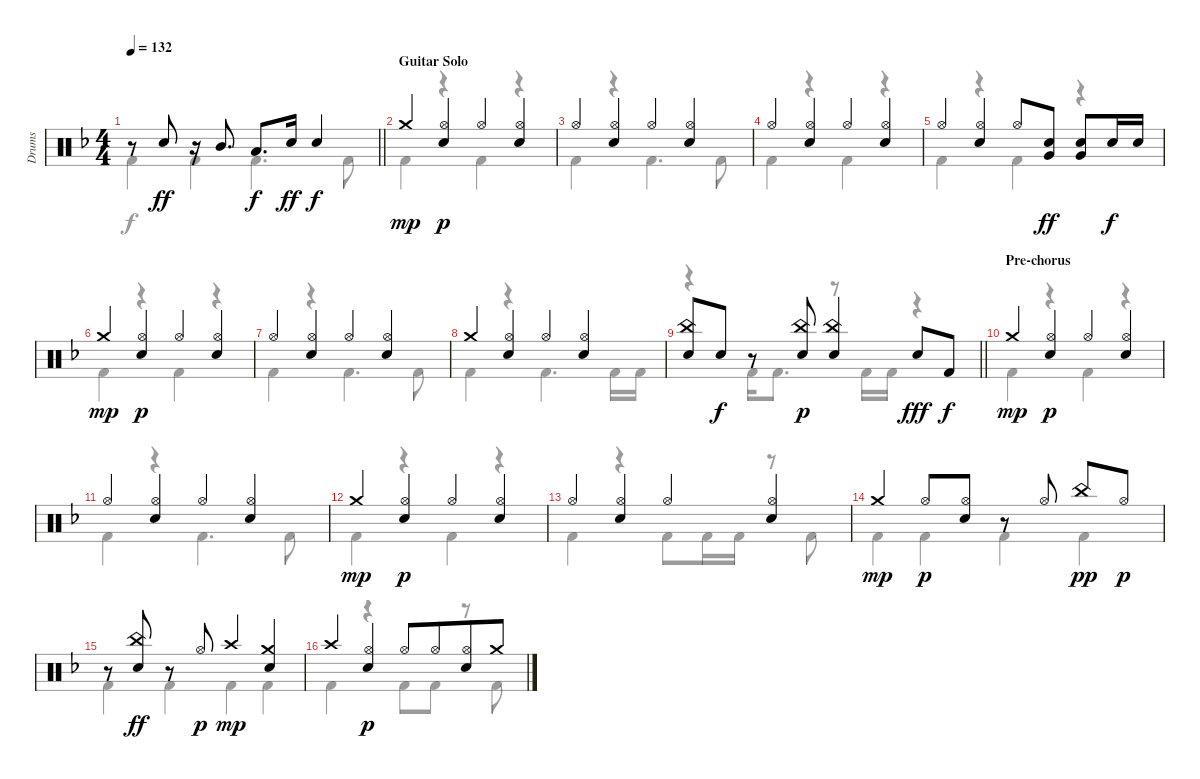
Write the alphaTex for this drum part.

\track ("Drums" "Drums") {instrument percussion}
\staff {score}
\articulation defaults
\voice
\ts (4 4)
\tempo 132
\clef neutral
\barLineRight lightlight
\ks f
r.8{dy mp} "Electric Snare (hit)".8{dy ff} r.16 "Mid Tom (hit)".8{d} "Low Tom (hit)".8{d dy f} "Electric Snare (hit)".16{dy ff} "Electric Snare (hit)".4{dy f} |
\section ("" "Guitar Solo")
"Crash medium (hit)".4{dy mp} ("Hi-Hat (open)" "Electric Snare (hit)").4{dy p} "Hi-Hat (open)".4 ("Hi-Hat (open)" "Electric Snare (hit)").4 |
"Hi-Hat (open)".4 ("Hi-Hat (open)" "Electric Snare (hit)").4 "Hi-Hat (open)".4 ("Hi-Hat (open)" "Electric Snare (hit)").4 |
"Hi-Hat (open)".4 ("Hi-Hat (open)" "Electric Snare (hit)").4 "Hi-Hat (open)".4 ("Hi-Hat (open)" "Electric Snare (hit)").4 |
"Hi-Hat (open)".4 ("Hi-Hat (open)" "Electric Snare (hit)").4 "Hi-Hat (open)".8 ("Electric Snare (hit)" "Very Low Tom (hit)").8{dy ff} ("Very Low Tom (hit)" "Electric Snare (hit)").8 "Electric Snare (hit)".16{dy f} "Electric Snare (hit)".16 |
"Crash medium (hit)".4{dy mp} ("Hi-Hat (open)" "Electric Snare (hit)").4{dy p} "Hi-Hat (open)".4 ("Hi-Hat (open)" "Electric Snare (hit)").4 |
"Hi-Hat (open)".4 ("Hi-Hat (open)" "Electric Snare (hit)").4 "Hi-Hat (open)".4 ("Hi-Hat (open)" "Electric Snare (hit)").4 |
"Crash medium (hit)".4 ("Hi-Hat (open)" "Electric Snare (hit)").4 "Hi-Hat (open)".4 ("Hi-Hat (open)" "Electric Snare (hit)").4 |
\barLineRight lightlight
("Electric Snare (hit)" "China (hit)").8 "Electric Snare (hit)".8{dy f} r.8 ("Electric Snare (hit)" "China (hit)").8{dy p} ("Electric Snare (hit)" "China (hit)").4 "Electric Snare (hit)".8{dy fff} "Kick (hit) 2".8{dy f} |
\section ("" "Pre-chorus")
"Crash medium (hit)".4{dy mp} ("Hi-Hat (open)" "Electric Snare (hit)").4{dy p} "Hi-Hat (open)".4 ("Hi-Hat (open)" "Electric Snare (hit)").4 |
"Hi-Hat (open)".4 ("Hi-Hat (open)" "Electric Snare (hit)").4 "Hi-Hat (open)".4 ("Hi-Hat (open)" "Electric Snare (hit)").4 |
"Crash medium (hit)".4{dy mp} ("Hi-Hat (open)" "Electric Snare (hit)").4{dy p} "Hi-Hat (open)".4 ("Hi-Hat (open)" "Electric Snare (hit)").4 |
"Hi-Hat (open)".4 ("Hi-Hat (open)" "Electric Snare (hit)").4 "Hi-Hat (open)".4 ("Hi-Hat (open)" "Electric Snare (hit)").4 |
"Crash medium (hit)".4{dy mp} "Hi-Hat (open)".8{dy p} ("Electric Snare (hit)" "Hi-Hat (open)").8 r.8 "Hi-Hat (open)".8 "China (hit)".8{dy pp} "Hi-Hat (open)".8{dy p} |
r.8 ("China (hit)" "Electric Snare (hit)").8{dy ff} r.8 "Hi-Hat (open)".8{dy p} "Crash high (hit)".4{dy mp} ("Electric Snare (hit)" "Crash medium (hit)").4 |
"Crash high (hit)".4 ("Electric Snare (hit)" "Hi-Hat (open)").4{dy p} "Hi-Hat (open)".8 "Hi-Hat (open)".8{beam merge} ("Hi-Hat (open)" "Electric Snare (hit)").8 "Crash medium (hit)".8
\voice
\clef neutral
\ottava regular
\simile none
\barLineRight lightlight
\ks f "Kick (hit) 2".4{dy f} "Kick (hit) 2".4 "Kick (hit) 2".4{d} "Kick (hit) 2".8
|
"Kick (hit) 2".4 r.4 "Kick (hit) 2".4 r.4 |
"Kick (hit) 2".4 r.4 "Kick (hit) 2".4{d} "Kick (hit) 2".8 |
"Kick (hit) 2".4 r.4 "Kick (hit) 2".4 r.4 |
"Kick (hit) 2".4 r.4 "Kick (hit) 2".4 r.4 |
"Kick (hit) 2".4 r.4 "Kick (hit) 2".4 r.4 |
"Kick (hit) 2".4 r.4 "Kick (hit) 2".4{d} "Kick (hit) 2".8 |
"Kick (hit) 2".4 r.4 "Kick (hit) 2".4{d} "Kick (hit) 2".16 "Kick (hit) 2".16 |
\barLineRight lightlight
r.4 "Kick (hit) 2".16 "Kick (hit) 2".8{d} r.8 "Kick (hit) 2".16 "Kick (hit) 2".16 r.4 |
"Kick (hit) 2".4 r.4 "Kick (hit) 2".4 r.4 |
"Kick (hit) 2".4 r.4 "Kick (hit) 2".4{d} "Kick (hit) 2".8 |
"Kick (hit) 2".4 r.4 "Kick (hit) 2".4 r.4 |
"Kick (hit) 2".4 r.4 "Kick (hit) 2".8 "Kick (hit) 2".16 "Kick (hit) 2".16 r.8 "Kick (hit) 2".8 |
"Kick (hit) 2".4 "Kick (hit) 2".4 "Kick (hit) 2".4 "Kick (hit) 2".4 |
"Kick (hit) 2".4 "Kick (hit) 2".4 "Kick (hit) 2".4 "Kick (hit) 2".4 |
"Kick (hit) 2".4 r.4 "Kick (hit) 2".8 "Kick (hit) 2".8 r.8 "Kick (hit) 2".8
